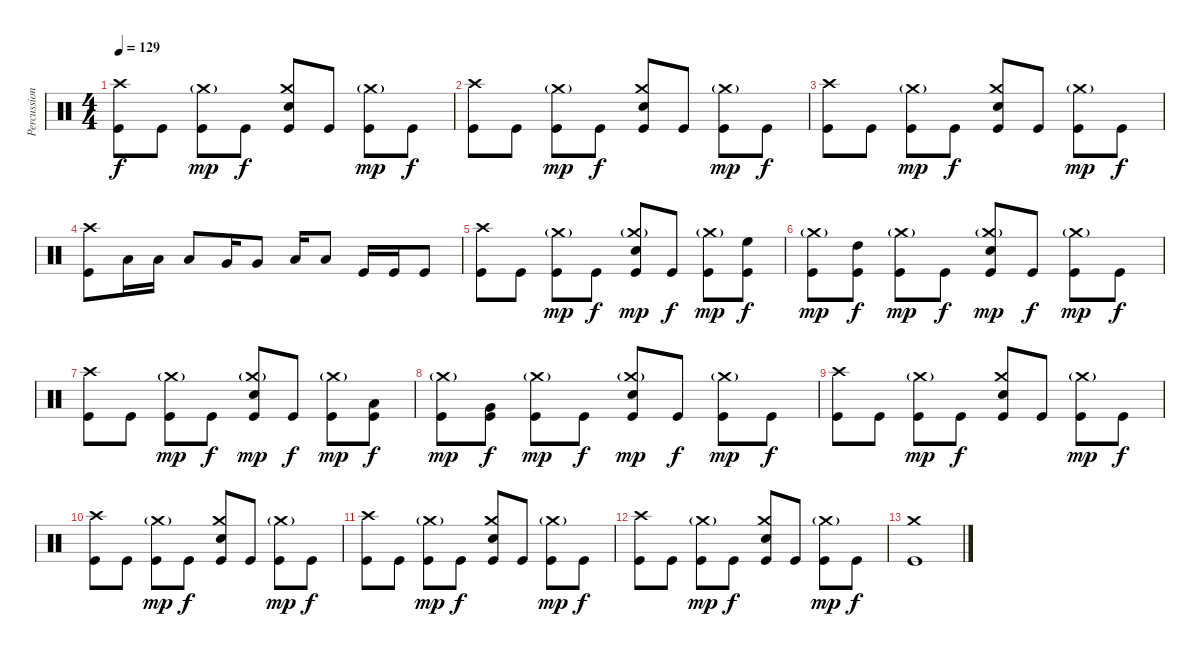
\track ("Percussion" "Percussion") {instrument percussion}
\staff {score}
\articulation defaults
\ts (4 4)
\tempo 129
\clef neutral
\ks c
("Crash high (hit)" "Kick (hit)").8{dy f} "Kick (hit)".8 ("Crash medium (hit)"{g} "Kick (hit)").8{dy mp} "Kick (hit)".8{dy f} ("Crash medium (hit)" "Electric Snare (hit)" "Kick (hit)").8 "Kick (hit)".8 ("Crash medium (hit)"{g} "Kick (hit)").8{dy mp} "Kick (hit)".8{dy f} |
("Crash high (hit)" "Kick (hit)").8 "Kick (hit)".8 ("Crash medium (hit)"{g} "Kick (hit)").8{dy mp} "Kick (hit)".8{dy f} ("Crash medium (hit)" "Electric Snare (hit)" "Kick (hit)").8 "Kick (hit)".8 ("Crash medium (hit)"{g} "Kick (hit)").8{dy mp} "Kick (hit)".8{dy f} |
("Crash high (hit)" "Kick (hit)").8 "Kick (hit)".8 ("Crash medium (hit)"{g} "Kick (hit)").8{dy mp} "Kick (hit)".8{dy f} ("Crash medium (hit)" "Electric Snare (hit)" "Kick (hit)").8 "Kick (hit)".8 ("Crash medium (hit)"{g} "Kick (hit)").8{dy mp} "Kick (hit)".8{dy f} |
("Crash high (hit)" "Kick (hit)").8 "Low Tom (hit)".16 "Low Tom (hit)".16 "Low Tom (hit)".8 "Very Low Tom (hit)".16 "Very Low Tom (hit)".8 "Low Floor Tom (hit)".16 "Low Floor Tom (hit)".8 "Kick (hit)".16 "Kick (hit)".16 "Kick (hit)".8 |
("Crash high (hit)" "Kick (hit)").8 "Kick (hit)".8 ("Crash medium (hit)"{g} "Kick (hit)").8{dy mp} "Kick (hit)".8{dy f} ("Crash medium (hit)"{g} "Electric Snare (hit)" "Kick (hit)").8{dy mp} "Kick (hit)".8{dy f} ("Crash medium (hit)"{g} "Kick (hit)").8{dy mp} ("High Floor Tom (hit)" "Kick (hit)").8{dy f} |
("Crash medium (hit)"{g} "Kick (hit)").8{dy mp} ("High Tom (hit)" "Kick (hit)").8{dy f} ("Crash medium (hit)"{g} "Kick (hit)").8{dy mp} "Kick (hit)".8{dy f} ("Crash medium (hit)"{g} "Electric Snare (hit)" "Kick (hit)").8{dy mp} "Kick (hit)".8{dy f} ("Crash medium (hit)"{g} "Kick (hit)").8{dy mp} "Kick (hit)".8{dy f} |
("Crash high (hit)" "Kick (hit)").8 "Kick (hit)".8 ("Crash medium (hit)"{g} "Kick (hit)").8{dy mp} "Kick (hit)".8{dy f} ("Crash medium (hit)"{g} "Electric Snare (hit)" "Kick (hit)").8{dy mp} "Kick (hit)".8{dy f} ("Crash medium (hit)"{g} "Kick (hit)").8{dy mp} ("Low Tom (hit)" "Kick (hit)").8{dy f} |
("Crash medium (hit)"{g} "Kick (hit)").8{dy mp} ("Very Low Tom (hit)" "Kick (hit)").8{dy f} ("Crash medium (hit)"{g} "Kick (hit)").8{dy mp} "Kick (hit)".8{dy f} ("Crash medium (hit)"{g} "Electric Snare (hit)" "Kick (hit)").8{dy mp} "Kick (hit)".8{dy f} ("Crash medium (hit)"{g} "Kick (hit)").8{dy mp} "Kick (hit)".8{dy f} |
("Crash high (hit)" "Kick (hit)").8 "Kick (hit)".8 ("Crash medium (hit)"{g} "Kick (hit)").8{dy mp} "Kick (hit)".8{dy f} ("Crash medium (hit)" "Electric Snare (hit)" "Kick (hit)").8 "Kick (hit)".8 ("Crash medium (hit)"{g} "Kick (hit)").8{dy mp} "Kick (hit)".8{dy f} |
("Crash high (hit)" "Kick (hit)").8 "Kick (hit)".8 ("Crash medium (hit)"{g} "Kick (hit)").8{dy mp} "Kick (hit)".8{dy f} ("Crash medium (hit)" "Electric Snare (hit)" "Kick (hit)").8 "Kick (hit)".8 ("Crash medium (hit)"{g} "Kick (hit)").8{dy mp} "Kick (hit)".8{dy f} |
("Crash high (hit)" "Kick (hit)").8 "Kick (hit)".8 ("Crash medium (hit)"{g} "Kick (hit)").8{dy mp} "Kick (hit)".8{dy f} ("Crash medium (hit)" "Electric Snare (hit)" "Kick (hit)").8 "Kick (hit)".8 ("Crash medium (hit)"{g} "Kick (hit)").8{dy mp} "Kick (hit)".8{dy f} |
("Crash high (hit)" "Kick (hit)").8 "Kick (hit)".8 ("Crash medium (hit)"{g} "Kick (hit)").8{dy mp} "Kick (hit)".8{dy f} ("Crash medium (hit)" "Electric Snare (hit)" "Kick (hit)").8 "Kick (hit)".8 ("Crash medium (hit)"{g} "Kick (hit)").8{dy mp} "Kick (hit)".8{dy f} |
("Crash medium (hit)" "Kick (hit)").1
